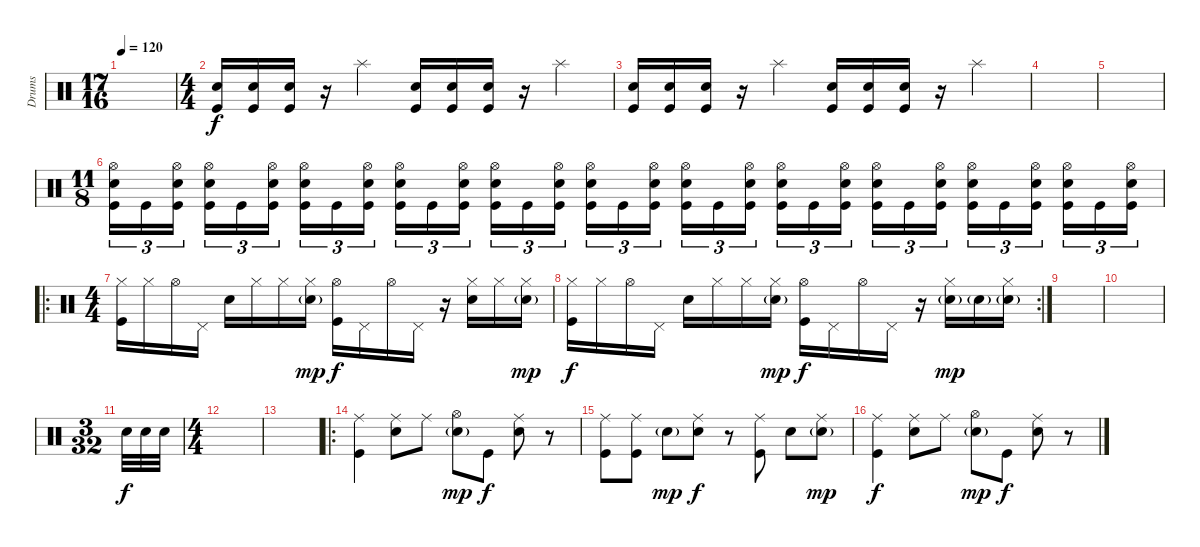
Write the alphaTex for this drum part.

\track ("Drums" "Drums") {instrument percussion}
\staff {score}
\articulation defaults
\ts (17 16)
\tempo 120
\clef neutral
\ks c
|
\ts (4 4)
("Snare (hit) 2" "Kick (hit)").16 ("Snare (hit) 2" "Kick (hit)").16 ("Snare (hit) 2" "Kick (hit)").16 r.16 "Splash (hit)".4 ("Snare (hit) 2" "Kick (hit)").16 ("Snare (hit) 2" "Kick (hit)").16 ("Snare (hit) 2" "Kick (hit)").16 r.16 "Splash (hit)".4 |
("Snare (hit) 2" "Kick (hit)").16 ("Snare (hit) 2" "Kick (hit)").16 ("Snare (hit) 2" "Kick (hit)").16 r.16 "Splash (hit)".4 ("Snare (hit) 2" "Kick (hit)").16 ("Snare (hit) 2" "Kick (hit)").16 ("Snare (hit) 2" "Kick (hit)").16 r.16 "Splash (hit)".4 |
|
|
\ts (11 8)
("Hi-Hat (open)" "Snare (hit) 2" "Kick (hit)").16{tu (3 2)} "Kick (hit)".16{tu (3 2)} ("Hi-Hat (open)" "Snare (hit) 2" "Kick (hit)").16{tu (3 2)} ("Hi-Hat (open)" "Snare (hit) 2" "Kick (hit)").16{tu (3 2)} "Kick (hit)".16{tu (3 2)} ("Hi-Hat (open)" "Snare (hit) 2" "Kick (hit)").16{tu (3 2)} ("Hi-Hat (open)" "Snare (hit) 2" "Kick (hit)").16{tu (3 2)} "Kick (hit)".16{tu (3 2)} ("Hi-Hat (open)" "Snare (hit) 2" "Kick (hit)").16{tu (3 2)} ("Hi-Hat (open)" "Snare (hit) 2" "Kick (hit)").16{tu (3 2)} "Kick (hit)".16{tu (3 2)} ("Hi-Hat (open)" "Snare (hit) 2" "Kick (hit)").16{tu (3 2)} ("Hi-Hat (open)" "Snare (hit) 2" "Kick (hit)").16{tu (3 2)} "Kick (hit)".16{tu (3 2)} ("Hi-Hat (open)" "Snare (hit) 2" "Kick (hit)").16{tu (3 2)} ("Hi-Hat (open)" "Snare (hit) 2" "Kick (hit)").16{tu (3 2)} "Kick (hit)".16{tu (3 2)} ("Hi-Hat (open)" "Snare (hit) 2" "Kick (hit)").16{tu (3 2)} ("Hi-Hat (open)" "Snare (hit) 2" "Kick (hit)").16{tu (3 2)} "Kick (hit)".16{tu (3 2)} ("Hi-Hat (open)" "Snare (hit) 2" "Kick (hit)").16{tu (3 2)} ("Hi-Hat (open)" "Snare (hit) 2" "Kick (hit)").16{tu (3 2)} "Kick (hit)".16{tu (3 2)} ("Hi-Hat (open)" "Snare (hit) 2" "Kick (hit)").16{tu (3 2)} ("Hi-Hat (open)" "Snare (hit) 2" "Kick (hit)").16{tu (3 2)} "Kick (hit)".16{tu (3 2)} ("Hi-Hat (open)" "Snare (hit) 2" "Kick (hit)").16{tu (3 2)} ("Hi-Hat (open)" "Snare (hit) 2" "Kick (hit)").16{tu (3 2)} "Kick (hit)".16{tu (3 2)} ("Hi-Hat (open)" "Snare (hit) 2" "Kick (hit)").16{tu (3 2)} ("Hi-Hat (open)" "Snare (hit) 2" "Kick (hit)").16{tu (3 2)} "Kick (hit)".16{tu (3 2)} ("Hi-Hat (open)" "Snare (hit) 2" "Kick (hit)").16{tu (3 2)} |
\ro
\ts (4 4)
("Hi-Hat (closed)" "Kick (hit)").16 "Hi-Hat (closed)".16 "Hi-Hat (open)".16 "Pedal Hi-Hat (hit)".16 "Snare (hit) 2".16 "Hi-Hat (closed)".16 "Hi-Hat (closed)".16 ("Hi-Hat (closed)" "Snare (hit) 2"{g}).16{dy mp} ("Hi-Hat (open)" "Kick (hit)").16{dy f} "Pedal Hi-Hat (hit)".16 "Hi-Hat (open)".16 "Pedal Hi-Hat (hit)".16 r.16 ("Hi-Hat (closed)" "Snare (hit) 2").16 "Hi-Hat (closed)".16 ("Hi-Hat (closed)" "Snare (hit) 2"{g}).16{dy mp} |
\rc 2
("Hi-Hat (closed)" "Kick (hit)").16{dy f} "Hi-Hat (closed)".16 "Hi-Hat (open)".16 "Pedal Hi-Hat (hit)".16 "Snare (hit) 2".16 "Hi-Hat (closed)".16 "Hi-Hat (closed)".16 ("Hi-Hat (closed)" "Snare (hit) 2"{g}).16{dy mp} ("Hi-Hat (open)" "Kick (hit)").16{dy f} "Pedal Hi-Hat (hit)".16 "Hi-Hat (open)".16 "Pedal Hi-Hat (hit)".16 r.16 ("Hi-Hat (closed)" "Snare (hit) 2"{g}).16{dy mp} "Snare (hit) 2"{g}.16 ("Hi-Hat (closed)" "Snare (hit) 2"{g}).16 |
|
|
\ts (3 32)
"Snare (hit) 2".32{dy f} "Snare (hit) 2".32 "Snare (hit) 2".32 |
\ts (4 4)
|
|
\ro
("Ride (middle)" "Kick (hit)").4 ("Ride (middle)" "Snare (hit) 2").8 "Ride (middle)".8 ("Hi-Hat (open)" "Snare (hit) 2"{g}).8{dy mp} "Kick (hit)".8{dy f} ("Ride (middle)" "Snare (hit) 2").8 r.8 |
("Ride (middle)" "Kick (hit)").8 ("Ride (middle)" "Kick (hit)").8 "Snare (hit) 2"{g}.8{dy mp} ("Ride (middle)" "Snare (hit) 2").8{dy f} r.8 ("Ride (middle)" "Kick (hit)").8 "Snare (hit) 2".8 ("Ride (middle)" "Snare (hit) 2"{g}).8{dy mp} |
("Ride (middle)" "Kick (hit)").4{dy f} ("Ride (middle)" "Snare (hit) 2").8 "Ride (middle)".8 ("Hi-Hat (open)" "Snare (hit) 2"{g}).8{dy mp} "Kick (hit)".8{dy f} ("Ride (middle)" "Snare (hit) 2").8 r.8
